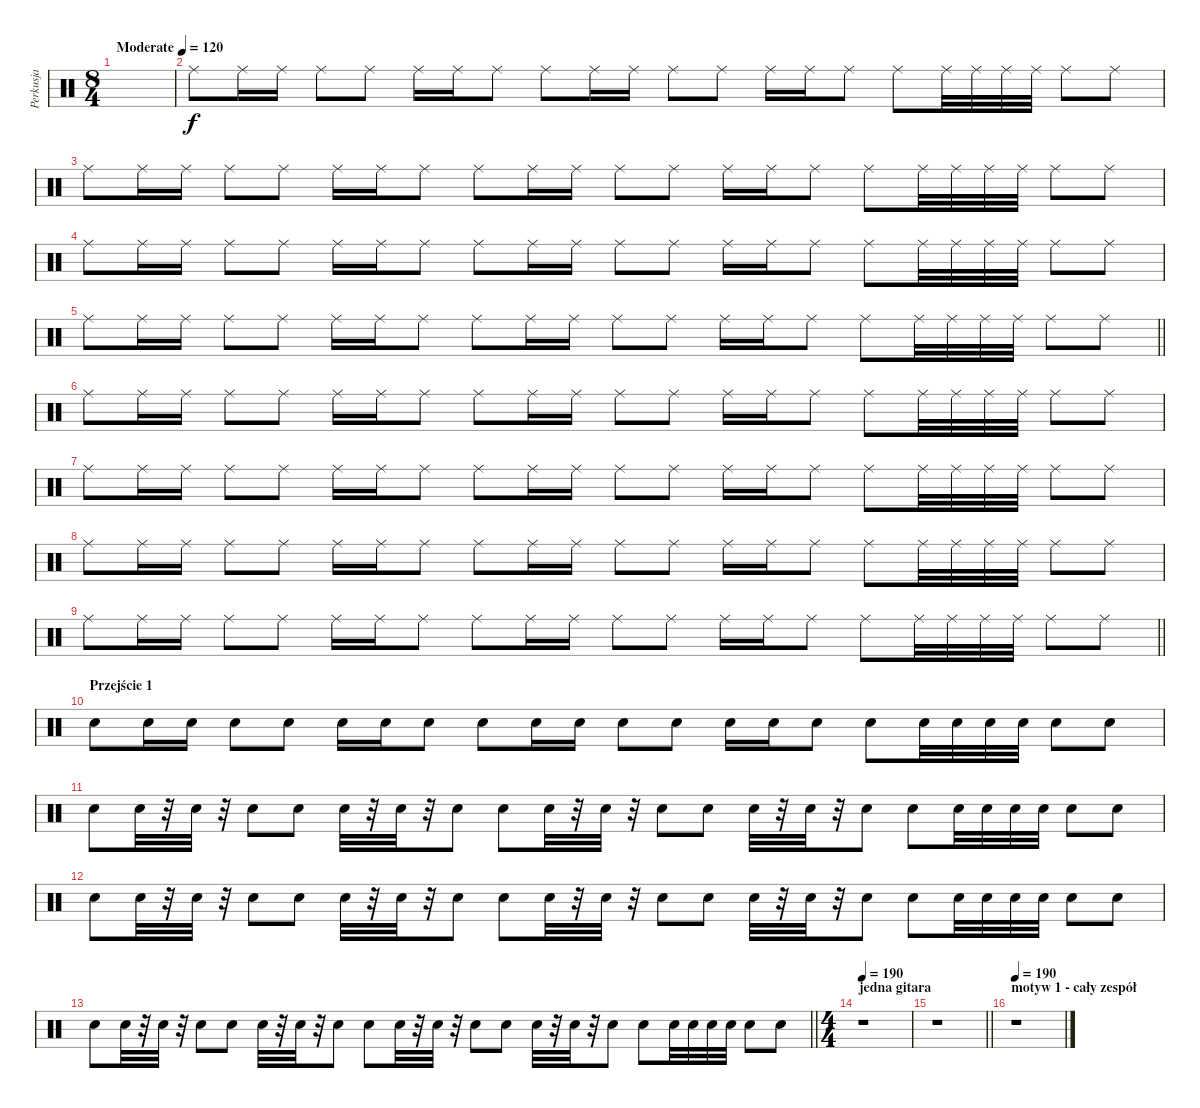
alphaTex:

\track ("Perkusja" "Perkusja") {instrument percussion}
\staff {score}
\articulation defaults
\ts (8 4)
\tempo (120 "Moderate")
\clef neutral
\ks c
|
"Ride (middle)".8 "Ride (middle)".16 "Ride (middle)".16 "Ride (middle)".8 "Ride (middle)".8 "Ride (middle)".16 "Ride (middle)".16 "Ride (middle)".8 "Ride (middle)".8 "Ride (middle)".16 "Ride (middle)".16 "Ride (middle)".8 "Ride (middle)".8 "Ride (middle)".16 "Ride (middle)".16 "Ride (middle)".8 "Ride (middle)".8 "Ride (middle)".32 "Ride (middle)".32 "Ride (middle)".32 "Ride (middle)".32 "Ride (middle)".8 "Ride (middle)".8 |
"Ride (middle)".8 "Ride (middle)".16 "Ride (middle)".16 "Ride (middle)".8 "Ride (middle)".8 "Ride (middle)".16 "Ride (middle)".16 "Ride (middle)".8 "Ride (middle)".8 "Ride (middle)".16 "Ride (middle)".16 "Ride (middle)".8 "Ride (middle)".8 "Ride (middle)".16 "Ride (middle)".16 "Ride (middle)".8 "Ride (middle)".8 "Ride (middle)".32 "Ride (middle)".32 "Ride (middle)".32 "Ride (middle)".32 "Ride (middle)".8 "Ride (middle)".8 |
"Ride (middle)".8 "Ride (middle)".16 "Ride (middle)".16 "Ride (middle)".8 "Ride (middle)".8 "Ride (middle)".16 "Ride (middle)".16 "Ride (middle)".8 "Ride (middle)".8 "Ride (middle)".16 "Ride (middle)".16 "Ride (middle)".8 "Ride (middle)".8 "Ride (middle)".16 "Ride (middle)".16 "Ride (middle)".8 "Ride (middle)".8 "Ride (middle)".32 "Ride (middle)".32 "Ride (middle)".32 "Ride (middle)".32 "Ride (middle)".8 "Ride (middle)".8 |
\barLineRight lightlight "Ride (middle)".8 "Ride (middle)".16 "Ride (middle)".16 "Ride (middle)".8 "Ride (middle)".8 "Ride (middle)".16 "Ride (middle)".16 "Ride (middle)".8 "Ride (middle)".8 "Ride (middle)".16 "Ride (middle)".16 "Ride (middle)".8 "Ride (middle)".8 "Ride (middle)".16 "Ride (middle)".16 "Ride (middle)".8 "Ride (middle)".8 "Ride (middle)".32 "Ride (middle)".32 "Ride (middle)".32 "Ride (middle)".32 "Ride (middle)".8 "Ride (middle)".8
|
"Ride (middle)".8 "Ride (middle)".16 "Ride (middle)".16 "Ride (middle)".8 "Ride (middle)".8 "Ride (middle)".16 "Ride (middle)".16 "Ride (middle)".8 "Ride (middle)".8 "Ride (middle)".16 "Ride (middle)".16 "Ride (middle)".8 "Ride (middle)".8 "Ride (middle)".16 "Ride (middle)".16 "Ride (middle)".8 "Ride (middle)".8 "Ride (middle)".32 "Ride (middle)".32 "Ride (middle)".32 "Ride (middle)".32 "Ride (middle)".8 "Ride (middle)".8 |
"Ride (middle)".8 "Ride (middle)".16 "Ride (middle)".16 "Ride (middle)".8 "Ride (middle)".8 "Ride (middle)".16 "Ride (middle)".16 "Ride (middle)".8 "Ride (middle)".8 "Ride (middle)".16 "Ride (middle)".16 "Ride (middle)".8 "Ride (middle)".8 "Ride (middle)".16 "Ride (middle)".16 "Ride (middle)".8 "Ride (middle)".8 "Ride (middle)".32 "Ride (middle)".32 "Ride (middle)".32 "Ride (middle)".32 "Ride (middle)".8 "Ride (middle)".8 |
"Ride (middle)".8 "Ride (middle)".16 "Ride (middle)".16 "Ride (middle)".8 "Ride (middle)".8 "Ride (middle)".16 "Ride (middle)".16 "Ride (middle)".8 "Ride (middle)".8 "Ride (middle)".16 "Ride (middle)".16 "Ride (middle)".8 "Ride (middle)".8 "Ride (middle)".16 "Ride (middle)".16 "Ride (middle)".8 "Ride (middle)".8 "Ride (middle)".32 "Ride (middle)".32 "Ride (middle)".32 "Ride (middle)".32 "Ride (middle)".8 "Ride (middle)".8 |
\barLineRight lightlight "Ride (middle)".8 "Ride (middle)".16 "Ride (middle)".16 "Ride (middle)".8 "Ride (middle)".8 "Ride (middle)".16 "Ride (middle)".16 "Ride (middle)".8 "Ride (middle)".8 "Ride (middle)".16 "Ride (middle)".16 "Ride (middle)".8 "Ride (middle)".8 "Ride (middle)".16 "Ride (middle)".16 "Ride (middle)".8 "Ride (middle)".8 "Ride (middle)".32 "Ride (middle)".32 "Ride (middle)".32 "Ride (middle)".32 "Ride (middle)".8 "Ride (middle)".8
|
\section ("" "Przejście 1")
"Snare (hit) 2".8 "Snare (hit) 2".16 "Snare (hit) 2".16 "Snare (hit) 2".8 "Snare (hit) 2".8 "Snare (hit) 2".16 "Snare (hit) 2".16 "Snare (hit) 2".8 "Snare (hit) 2".8 "Snare (hit) 2".16 "Snare (hit) 2".16 "Snare (hit) 2".8 "Snare (hit) 2".8 "Snare (hit) 2".16 "Snare (hit) 2".16 "Snare (hit) 2".8 "Snare (hit) 2".8 "Snare (hit) 2".32 "Snare (hit) 2".32 "Snare (hit) 2".32 "Snare (hit) 2".32 "Snare (hit) 2".8 "Snare (hit) 2".8 |
"Snare (hit) 2".8 "Snare (hit) 2".32 r.32 "Snare (hit) 2".32 r.32 "Snare (hit) 2".8 "Snare (hit) 2".8 "Snare (hit) 2".32 r.32 "Snare (hit) 2".32 r.32 "Snare (hit) 2".8 "Snare (hit) 2".8 "Snare (hit) 2".32 r.32 "Snare (hit) 2".32 r.32 "Snare (hit) 2".8 "Snare (hit) 2".8 "Snare (hit) 2".32 r.32 "Snare (hit) 2".32 r.32 "Snare (hit) 2".8 "Snare (hit) 2".8 "Snare (hit) 2".32 "Snare (hit) 2".32 "Snare (hit) 2".32 "Snare (hit) 2".32 "Snare (hit) 2".8 "Snare (hit) 2".8 |
"Snare (hit) 2".8 "Snare (hit) 2".32 r.32 "Snare (hit) 2".32 r.32 "Snare (hit) 2".8 "Snare (hit) 2".8 "Snare (hit) 2".32 r.32 "Snare (hit) 2".32 r.32 "Snare (hit) 2".8 "Snare (hit) 2".8 "Snare (hit) 2".32 r.32 "Snare (hit) 2".32 r.32 "Snare (hit) 2".8 "Snare (hit) 2".8 "Snare (hit) 2".32 r.32 "Snare (hit) 2".32 r.32 "Snare (hit) 2".8 "Snare (hit) 2".8 "Snare (hit) 2".32 "Snare (hit) 2".32 "Snare (hit) 2".32 "Snare (hit) 2".32 "Snare (hit) 2".8 "Snare (hit) 2".8 |
\barLineRight lightlight "Snare (hit) 2".8 "Snare (hit) 2".32
r.32 "Snare (hit) 2".32 r.32 "Snare (hit) 2".8 "Snare (hit) 2".8 "Snare (hit) 2".32 r.32 "Snare (hit) 2".32 r.32 "Snare (hit) 2".8 "Snare (hit) 2".8 "Snare (hit) 2".32 r.32 "Snare (hit) 2".32 r.32 "Snare (hit) 2".8 "Snare (hit) 2".8 "Snare (hit) 2".32 r.32 "Snare (hit) 2".32 r.32 "Snare (hit) 2".8 "Snare (hit) 2".8 "Snare (hit) 2".32 "Snare (hit) 2".32 "Snare (hit) 2".32 "Snare (hit) 2".32 "Snare (hit) 2".8 "Snare (hit) 2".8 |
\ts (4 4)
\section ("" "jedna gitara")
\tempo 190
r.1 |
\barLineRight lightlight
r.1 |
\section ("" "motyw 1 - cały zespół")
\tempo 190
r.1
